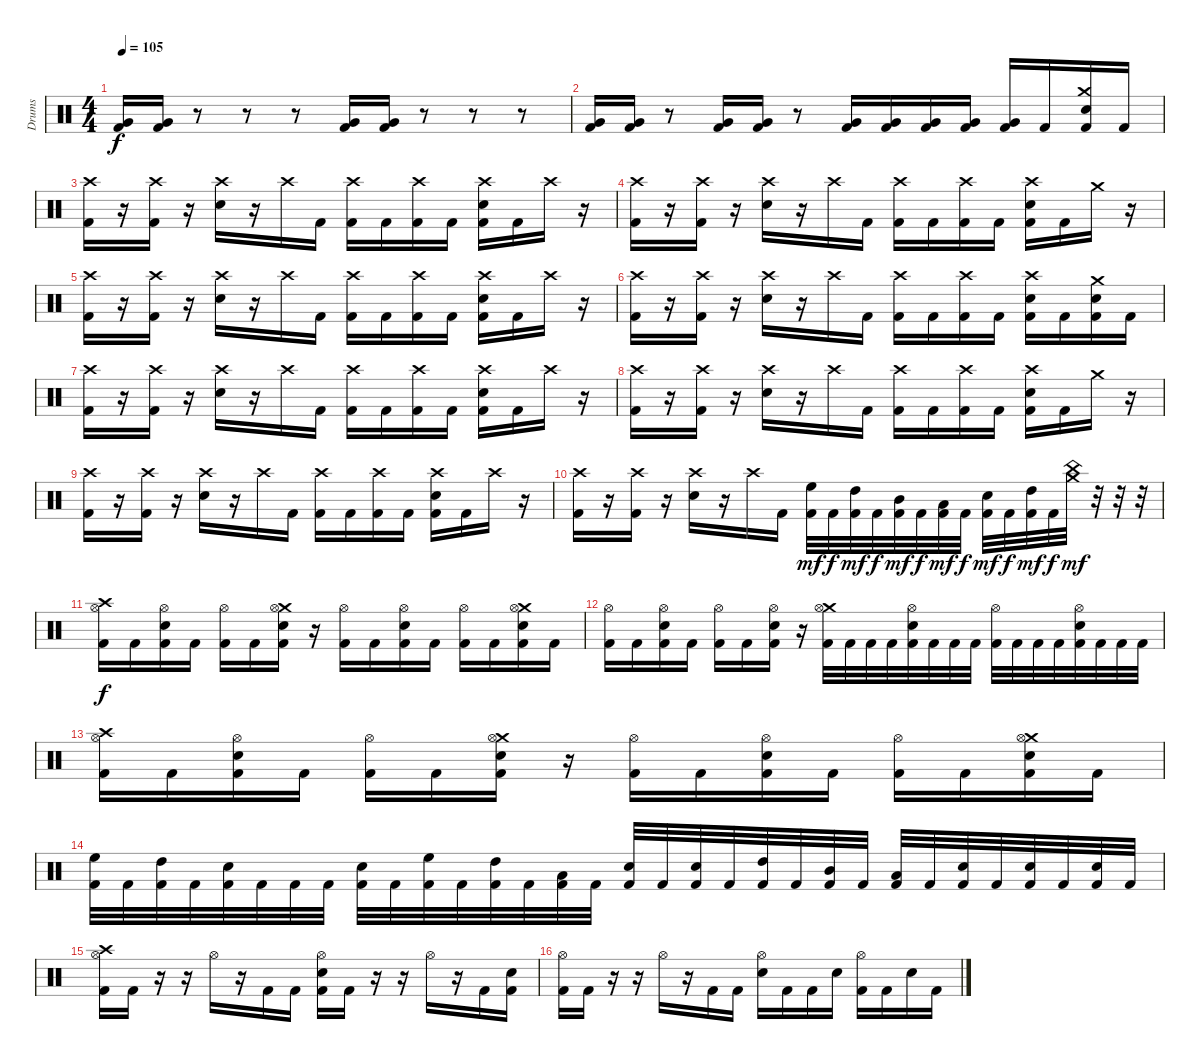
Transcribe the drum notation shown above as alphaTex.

\track ("Drums" "Drums") {instrument percussion}
\staff {score}
\articulation defaults
\ts (4 4)
\tempo 105
\clef neutral
\ks c
("Very Low Tom (hit)" "Kick (hit) 2").16{dy f} ("Very Low Tom (hit)" "Kick (hit) 2").16 r.8 r.8 r.8 ("Very Low Tom (hit)" "Kick (hit) 2").16 ("Very Low Tom (hit)" "Kick (hit) 2").16 r.8 r.8 r.8 |
("Very Low Tom (hit)" "Kick (hit) 2").16 ("Very Low Tom (hit)" "Kick (hit) 2").16 r.8 ("Very Low Tom (hit)" "Kick (hit) 2").16 ("Very Low Tom (hit)" "Kick (hit) 2").16 r.8 ("Very Low Tom (hit)" "Kick (hit) 2").16 ("Very Low Tom (hit)" "Kick (hit) 2").16 ("Very Low Tom (hit)" "Kick (hit) 2").16 ("Very Low Tom (hit)" "Kick (hit) 2").16 ("Very Low Tom (hit)" "Kick (hit) 2").16 "Kick (hit) 2".16 ("Crash medium (hit)" "Snare (hit) 2" "Kick (hit) 2").16 "Kick (hit) 2".16 |
("Crash high (hit)" "Kick (hit) 2").16 r.16 ("Crash high (hit)" "Kick (hit) 2").16 r.16 ("Crash high (hit)" "Snare (hit) 2").16 r.16 "Crash high (hit)".16 "Kick (hit) 2".16 ("Crash high (hit)" "Kick (hit) 2").16 "Kick (hit) 2".16 ("Crash high (hit)" "Kick (hit) 2").16 "Kick (hit) 2".16 ("Crash high (hit)" "Snare (hit) 2" "Kick (hit) 2").16 "Kick (hit) 2".16 "Crash high (hit)".16 r.16 |
("Crash high (hit)" "Kick (hit) 2").16 r.16 ("Crash high (hit)" "Kick (hit) 2").16 r.16 ("Crash high (hit)" "Snare (hit) 2").16 r.16 "Crash high (hit)".16 "Kick (hit) 2".16 ("Crash high (hit)" "Kick (hit) 2").16 "Kick (hit) 2".16 ("Crash high (hit)" "Kick (hit) 2").16 "Kick (hit) 2".16 ("Crash high (hit)" "Snare (hit) 2" "Kick (hit) 2").16 "Kick (hit) 2".16 "Crash medium (hit)".16 r.16 |
("Crash high (hit)" "Kick (hit) 2").16 r.16 ("Crash high (hit)" "Kick (hit) 2").16 r.16 ("Crash high (hit)" "Snare (hit) 2").16 r.16 "Crash high (hit)".16 "Kick (hit) 2".16 ("Crash high (hit)" "Kick (hit) 2").16 "Kick (hit) 2".16 ("Crash high (hit)" "Kick (hit) 2").16 "Kick (hit) 2".16 ("Crash high (hit)" "Snare (hit) 2" "Kick (hit) 2").16 "Kick (hit) 2".16 "Crash high (hit)".16 r.16 |
("Crash high (hit)" "Kick (hit) 2").16 r.16 ("Crash high (hit)" "Kick (hit) 2").16 r.16 ("Crash high (hit)" "Snare (hit) 2").16 r.16 "Crash high (hit)".16 "Kick (hit) 2".16 ("Crash high (hit)" "Kick (hit) 2").16 "Kick (hit) 2".16 ("Crash high (hit)" "Kick (hit) 2").16 "Kick (hit) 2".16 ("Crash high (hit)" "Snare (hit) 2" "Kick (hit) 2").16 "Kick (hit) 2".16 ("Crash medium (hit)" "Snare (hit) 2" "Kick (hit) 2").16 "Kick (hit) 2".16 |
("Crash high (hit)" "Kick (hit) 2").16 r.16 ("Crash high (hit)" "Kick (hit) 2").16 r.16 ("Crash high (hit)" "Snare (hit) 2").16 r.16 "Crash high (hit)".16 "Kick (hit) 2".16 ("Crash high (hit)" "Kick (hit) 2").16 "Kick (hit) 2".16 ("Crash high (hit)" "Kick (hit) 2").16 "Kick (hit) 2".16 ("Crash high (hit)" "Snare (hit) 2" "Kick (hit) 2").16 "Kick (hit) 2".16 "Crash high (hit)".16 r.16 |
("Crash high (hit)" "Kick (hit) 2").16 r.16 ("Crash high (hit)" "Kick (hit) 2").16 r.16 ("Crash high (hit)" "Snare (hit) 2").16 r.16 "Crash high (hit)".16 "Kick (hit) 2".16 ("Crash high (hit)" "Kick (hit) 2").16 "Kick (hit) 2".16 ("Crash high (hit)" "Kick (hit) 2").16 "Kick (hit) 2".16 ("Crash high (hit)" "Snare (hit) 2" "Kick (hit) 2").16 "Kick (hit) 2".16 "Crash medium (hit)".16 r.16 |
("Crash high (hit)" "Kick (hit) 2").16 r.16 ("Crash high (hit)" "Kick (hit) 2").16 r.16 ("Crash high (hit)" "Snare (hit) 2").16 r.16 "Crash high (hit)".16 "Kick (hit) 2".16 ("Crash high (hit)" "Kick (hit) 2").16 "Kick (hit) 2".16 ("Crash high (hit)" "Kick (hit) 2").16 "Kick (hit) 2".16 ("Crash high (hit)" "Snare (hit) 2" "Kick (hit) 2").16 "Kick (hit) 2".16 "Crash high (hit)".16 r.16 |
("Crash high (hit)" "Kick (hit) 2").16 r.16 ("Crash high (hit)" "Kick (hit) 2").16 r.16 ("Crash high (hit)" "Snare (hit) 2").16 r.16 "Crash high (hit)".16 "Kick (hit) 2".16 ("High Floor Tom (hit)" "Kick (hit) 2").32{dy mf} "Kick (hit) 2".32{dy f} ("High Tom (hit)" "Kick (hit) 2").32{dy mf} "Kick (hit) 2".32{dy f} ("Mid Tom (hit)" "Kick (hit) 2").32{dy mf} "Kick (hit) 2".32{dy f} ("Low Tom (hit)" "Kick (hit) 2").32{dy mf} "Kick (hit) 2".32{dy f} ("Snare (hit) 2" "Kick (hit) 2").32{dy mf} "Kick (hit) 2".32{dy f} ("High Tom (hit)" "Kick (hit) 2").32{dy mf} "Kick (hit) 2".32{dy f} ("Crash medium (hit)" "China (hit)").32{dy mf} r.32 r.32 r.32 |
("Crash high (hit)" "Hi-Hat (open)" "Kick (hit) 2").16{dy f} "Kick (hit) 2".16 ("Hi-Hat (open)" "Snare (hit) 2" "Kick (hit) 2").16 "Kick (hit) 2".16 ("Hi-Hat (open)" "Kick (hit) 2").16 "Kick (hit) 2".16 ("Crash medium (hit)" "Hi-Hat (open)" "Snare (hit) 2" "Kick (hit) 2").16 r.16 ("Hi-Hat (open)" "Kick (hit) 2").16 "Kick (hit) 2".16 ("Hi-Hat (open)" "Snare (hit) 2" "Kick (hit) 2").16 "Kick (hit) 2".16 ("Hi-Hat (open)" "Kick (hit) 2").16 "Kick (hit) 2".16 ("Crash medium (hit)" "Hi-Hat (open)" "Snare (hit) 2" "Kick (hit) 2").16 "Kick (hit) 2".16 |
("Hi-Hat (open)" "Kick (hit) 2").16 "Kick (hit) 2".16 ("Hi-Hat (open)" "Snare (hit) 2" "Kick (hit) 2").16 "Kick (hit) 2".16 ("Hi-Hat (open)" "Kick (hit) 2").16 "Kick (hit) 2".16 ("Hi-Hat (open)" "Snare (hit) 2" "Kick (hit) 2").16 r.16 ("Crash medium (hit)" "Hi-Hat (open)" "Kick (hit) 2").32 "Kick (hit) 2".32 "Kick (hit) 2".32 "Kick (hit) 2".32 ("Hi-Hat (open)" "Snare (hit) 2" "Kick (hit) 2").32 "Kick (hit) 2".32 "Kick (hit) 2".32 "Kick (hit) 2".32 ("Hi-Hat (open)" "Kick (hit) 2").32 "Kick (hit) 2".32 "Kick (hit) 2".32 "Kick (hit) 2".32 ("Hi-Hat (open)" "Snare (hit) 2" "Kick (hit) 2").32 "Kick (hit) 2".32 "Kick (hit) 2".32 "Kick (hit) 2".32 |
("Crash high (hit)" "Hi-Hat (open)" "Kick (hit) 2").16 "Kick (hit) 2".16 ("Hi-Hat (open)" "Snare (hit) 2" "Kick (hit) 2").16 "Kick (hit) 2".16 ("Hi-Hat (open)" "Kick (hit) 2").16 "Kick (hit) 2".16 ("Crash medium (hit)" "Hi-Hat (open)" "Snare (hit) 2" "Kick (hit) 2").16 r.16 ("Hi-Hat (open)" "Kick (hit) 2").16 "Kick (hit) 2".16 ("Hi-Hat (open)" "Snare (hit) 2" "Kick (hit) 2").16 "Kick (hit) 2".16 ("Hi-Hat (open)" "Kick (hit) 2").16 "Kick (hit) 2".16 ("Crash medium (hit)" "Hi-Hat (open)" "Snare (hit) 2" "Kick (hit) 2").16 "Kick (hit) 2".16 |
("High Floor Tom (hit)" "Kick (hit) 2").32 "Kick (hit) 2".32 ("High Tom (hit)" "Kick (hit) 2").32 "Kick (hit) 2".32 ("Snare (hit) 2" "Kick (hit) 2").32 "Kick (hit) 2".32 "Kick (hit) 2".32 "Kick (hit) 2".32 ("Snare (hit) 2" "Kick (hit) 2").32 "Kick (hit) 2".32 ("High Floor Tom (hit)" "Kick (hit) 2").32 "Kick (hit) 2".32 ("High Tom (hit)" "Kick (hit) 2").32 "Kick (hit) 2".32 ("Low Tom (hit)" "Kick (hit) 2").32 "Kick (hit) 2".32 ("Snare (hit) 2" "Kick (hit) 2").32 "Kick (hit) 2".32 ("Snare (hit) 2" "Kick (hit) 2").32 "Kick (hit) 2".32 ("High Tom (hit)" "Kick (hit) 2").32 "Kick (hit) 2".32 ("Mid Tom (hit)" "Kick (hit) 2").32 "Kick (hit) 2".32 ("Low Tom (hit)" "Kick (hit) 2").32 "Kick (hit) 2".32 ("Snare (hit) 2" "Kick (hit) 2").32 "Kick (hit) 2".32 ("Snare (hit) 2" "Kick (hit) 2").32 "Kick (hit) 2".32 ("Snare (hit) 2" "Kick (hit) 2").32 "Kick (hit) 2".32 |
("Crash high (hit)" "Hi-Hat (open)" "Kick (hit) 2").16 "Kick (hit) 2".16 r.16 r.16 "Hi-Hat (open)".16 r.16 "Kick (hit) 2".16 "Kick (hit) 2".16 ("Hi-Hat (open)" "Snare (hit) 2" "Kick (hit) 2").16 "Kick (hit) 2".16 r.16 r.16 "Hi-Hat (open)".16 r.16 "Kick (hit) 2".16 ("Snare (hit) 2" "Kick (hit) 2").16 |
("Hi-Hat (open)" "Kick (hit) 2").16 "Kick (hit) 2".16 r.16 r.16 "Hi-Hat (open)".16 r.16 "Kick (hit) 2".16 "Kick (hit) 2".16 ("Hi-Hat (open)" "Snare (hit) 2").16 "Kick (hit) 2".16 "Kick (hit) 2".16 "Snare (hit) 2".16 ("Hi-Hat (open)" "Kick (hit) 2").16 "Kick (hit) 2".16 "Snare (hit) 2".16 "Kick (hit) 2".16
